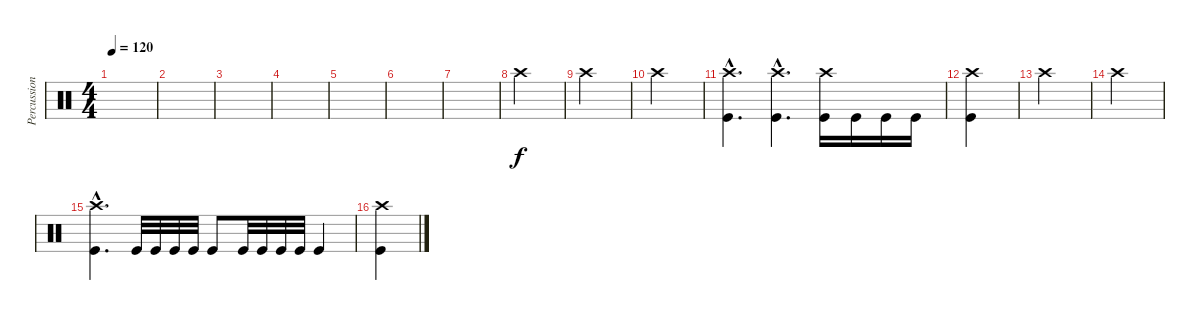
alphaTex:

\track ("Percussion" "Percussion") {instrument percussion}
\staff {score}
\articulation defaults
\ts (4 4)
\tempo 120
\clef neutral
\ks c
|
|
|
|
|
|
|
"Crash high (hit)".4 |
"Crash high (hit)".4 |
"Crash high (hit)".4 |
("Kick (hit)"{hac} "Crash high (hit)"{hac}).4{d} ("Kick (hit)"{hac} "Crash high (hit)"{hac}).4{d} ("Kick (hit)" "Crash high (hit)").16 "Kick (hit)".16 "Kick (hit)".16 "Kick (hit)".16 |
("Kick (hit)" "Crash high (hit)").4 |
"Crash high (hit)".4 |
"Crash high (hit)".4 |
("Kick (hit)"{hac} "Crash high (hit)"{hac}).4{d} "Kick (hit)".32 "Kick (hit)".32 "Kick (hit)".32 "Kick (hit)".32 "Kick (hit)".8 "Kick (hit)".32 "Kick (hit)".32 "Kick (hit)".32 "Kick (hit)".32 "Kick (hit)".4 |
("Kick (hit)" "Crash high (hit)").4
